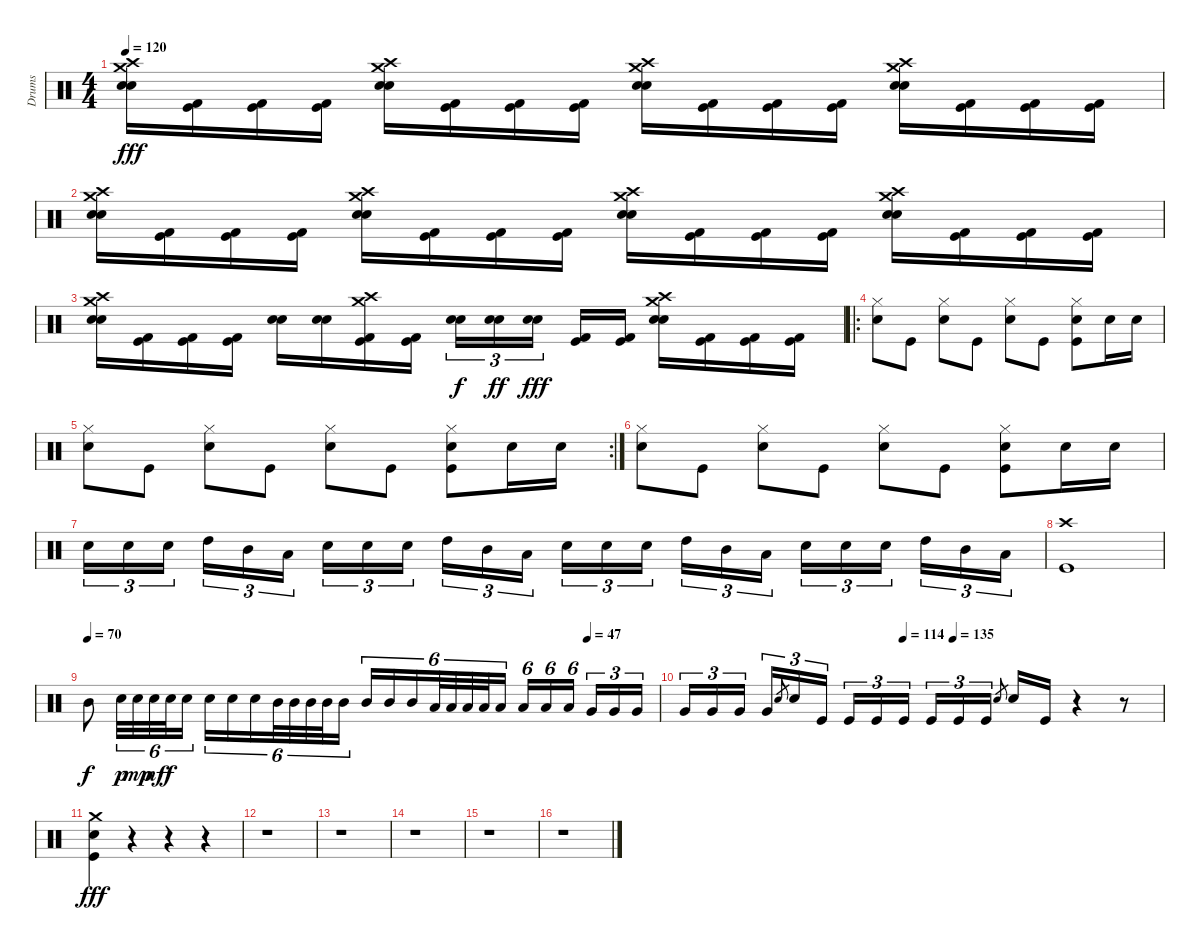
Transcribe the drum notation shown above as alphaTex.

\track ("Drums" "Drums") {instrument percussion}
\staff {score}
\articulation defaults
\ts (4 4)
\tempo 120
\clef neutral
\ks c
("Crash high (hit)" "Crash medium (hit)" "Electric Snare (hit)" "Snare (hit) 2").16{dy fff} ("Kick (hit) 2" "Kick (hit)").16 ("Kick (hit) 2" "Kick (hit)").16 ("Kick (hit) 2" "Kick (hit)").16 ("Crash high (hit)" "Crash medium (hit)" "Electric Snare (hit)" "Snare (hit) 2").16 ("Kick (hit) 2" "Kick (hit)").16 ("Kick (hit) 2" "Kick (hit)").16 ("Kick (hit) 2" "Kick (hit)").16 ("Crash high (hit)" "Crash medium (hit)" "Electric Snare (hit)" "Snare (hit) 2").16 ("Kick (hit) 2" "Kick (hit)").16 ("Kick (hit) 2" "Kick (hit)").16 ("Kick (hit) 2" "Kick (hit)").16 ("Crash high (hit)" "Crash medium (hit)" "Electric Snare (hit)" "Snare (hit) 2").16 ("Kick (hit) 2" "Kick (hit)").16 ("Kick (hit) 2" "Kick (hit)").16 ("Kick (hit) 2" "Kick (hit)").16 |
("Crash high (hit)" "Crash medium (hit)" "Electric Snare (hit)" "Snare (hit) 2").16 ("Kick (hit) 2" "Kick (hit)").16 ("Kick (hit) 2" "Kick (hit)").16 ("Kick (hit) 2" "Kick (hit)").16 ("Crash high (hit)" "Crash medium (hit)" "Electric Snare (hit)" "Snare (hit) 2").16 ("Kick (hit) 2" "Kick (hit)").16 ("Kick (hit) 2" "Kick (hit)").16 ("Kick (hit) 2" "Kick (hit)").16 ("Crash high (hit)" "Crash medium (hit)" "Electric Snare (hit)" "Snare (hit) 2").16 ("Kick (hit) 2" "Kick (hit)").16 ("Kick (hit) 2" "Kick (hit)").16 ("Kick (hit) 2" "Kick (hit)").16 ("Crash high (hit)" "Crash medium (hit)" "Electric Snare (hit)" "Snare (hit) 2").16 ("Kick (hit) 2" "Kick (hit)").16 ("Kick (hit) 2" "Kick (hit)").16 ("Kick (hit) 2" "Kick (hit)").16 |
("Crash high (hit)" "Crash medium (hit)" "Electric Snare (hit)" "Snare (hit) 2").16 ("Kick (hit) 2" "Kick (hit)").16 ("Kick (hit) 2" "Kick (hit)").16 ("Kick (hit) 2" "Kick (hit)").16 ("Electric Snare (hit)" "Snare (hit) 2").16 ("Electric Snare (hit)" "Snare (hit) 2").16 ("Crash high (hit)" "Crash medium (hit)" "Kick (hit) 2" "Kick (hit)").16 ("Kick (hit) 2" "Kick (hit)").16 ("Electric Snare (hit)" "Snare (hit) 2").16{tu (3 2) dy f} ("Electric Snare (hit)" "Snare (hit) 2").16{tu (3 2) dy ff} ("Electric Snare (hit)" "Snare (hit) 2").16{tu (3 2) dy fff} ("Kick (hit) 2" "Kick (hit)").16 ("Kick (hit) 2" "Kick (hit)").16 ("Crash high (hit)" "Crash medium (hit)" "Electric Snare (hit)" "Snare (hit) 2").16 ("Kick (hit) 2" "Kick (hit)").16 ("Kick (hit) 2" "Kick (hit)").16 ("Kick (hit) 2" "Kick (hit)").16 |
\ro
("Hi-Hat (closed)" "Electric Snare (hit)").8 "Kick (hit)".8 ("Hi-Hat (closed)" "Electric Snare (hit)").8 "Kick (hit)".8 ("Hi-Hat (closed)" "Electric Snare (hit)").8 "Kick (hit)".8 ("Hi-Hat (closed)" "Electric Snare (hit)" "Kick (hit)").8 "Electric Snare (hit)".16 "Electric Snare (hit)".16 |
\rc 2
("Hi-Hat (closed)" "Electric Snare (hit)").8 "Kick (hit)".8 ("Hi-Hat (closed)" "Electric Snare (hit)").8 "Kick (hit)".8 ("Hi-Hat (closed)" "Electric Snare (hit)").8 "Kick (hit)".8 ("Hi-Hat (closed)" "Electric Snare (hit)" "Kick (hit)").8 "Electric Snare (hit)".16 "Electric Snare (hit)".16 |
("Hi-Hat (closed)" "Electric Snare (hit)").8 "Kick (hit)".8 ("Hi-Hat (closed)" "Electric Snare (hit)").8 "Kick (hit)".8 ("Hi-Hat (closed)" "Electric Snare (hit)").8 "Kick (hit)".8 ("Hi-Hat (closed)" "Electric Snare (hit)" "Kick (hit)").8 "Electric Snare (hit)".16 "Electric Snare (hit)".16 |
"Electric Snare (hit)".16{tu (3 2)} "Electric Snare (hit)".16{tu (3 2)} "Electric Snare (hit)".16{tu (3 2)} "High Tom (hit)".16{tu (3 2)} "Mid Tom (hit)".16{tu (3 2)} "Low Tom (hit)".16{tu (3 2)} "Electric Snare (hit)".16{tu (3 2)} "Electric Snare (hit)".16{tu (3 2)} "Electric Snare (hit)".16{tu (3 2)} "High Tom (hit)".16{tu (3 2)} "Mid Tom (hit)".16{tu (3 2)} "Low Tom (hit)".16{tu (3 2)} "Electric Snare (hit)".16{tu (3 2)} "Electric Snare (hit)".16{tu (3 2)} "Electric Snare (hit)".16{tu (3 2)} "High Tom (hit)".16{tu (3 2)} "Mid Tom (hit)".16{tu (3 2)} "Low Tom (hit)".16{tu (3 2)} "Electric Snare (hit)".16{tu (3 2)} "Electric Snare (hit)".16{tu (3 2)} "Electric Snare (hit)".16{tu (3 2)} "High Tom (hit)".16{tu (3 2)} "Mid Tom (hit)".16{tu (3 2)} "Low Tom (hit)".16{tu (3 2)} |
("Crash high (hit)" "Kick (hit)").1 |
\tempo 70
\tempo (47 0.875)
"Mid Tom (hit)".8{dy f} "Electric Snare (hit)".32{tu (6 4) dy p} "Electric Snare (hit)".32{tu (6 4) dy mp} "Electric Snare (hit)".32{tu (6 4) dy mf} "Electric Snare (hit)".32{tu (6 4) dy f} "Electric Snare (hit)".16{tu (6 4)} "Electric Snare (hit)".16{tu (6 4)} "Electric Snare (hit)".16{tu (6 4)} "Electric Snare (hit)".16{tu (6 4)} "Mid Tom (hit)".32{tu (6 4)} "Mid Tom (hit)".32{tu (6 4)} "Mid Tom (hit)".32{tu (6 4)} "Mid Tom (hit)".32{tu (6 4)} "Mid Tom (hit)".16{tu (6 4)} "Mid Tom (hit)".16{tu (6 4)} "Mid Tom (hit)".16{tu (6 4)} "Mid Tom (hit)".16{tu (6 4)} "Low Tom (hit)".32{tu (6 4)} "Low Tom (hit)".32{tu (6 4)} "Low Tom (hit)".32{tu (6 4)} "Low Tom (hit)".32{tu (6 4)} "Low Tom (hit)".16{tu (6 4)} "Low Tom (hit)".16{tu (6 4)} "Low Tom (hit)".16{tu (6 4)} "Low Tom (hit)".16{tu (6 4)} "Very Low Tom (hit)".16{tu (3 2)} "Very Low Tom (hit)".16{tu (3 2)} "Very Low Tom (hit)".16{tu (3 2)} |
\tempo (114 0.4583333333333333)
\tempo (135 0.5625)
"Very Low Tom (hit)".16{tu (3 2)} "Very Low Tom (hit)".16{tu (3 2)} "Very Low Tom (hit)".16{tu (3 2)} "Very Low Tom (hit)".16{tu (3 2)} "Electric Snare (hit)".8{gr} "Electric Snare (hit)".16{tu (3 2)} "Kick (hit)".16{tu (3 2)} "Kick (hit)".16{tu (3 2)} "Kick (hit)".16{tu (3 2)} "Kick (hit)".16{tu (3 2)} "Kick (hit)".16{tu (3 2)} "Kick (hit)".16{tu (3 2)} "Kick (hit)".16{tu (3 2)} "Electric Snare (hit)".8{gr} "Electric Snare (hit)".16 "Kick (hit)".16{volume 16} r.4 r.8 |
("Crash medium (hit)" "Electric Snare (hit)" "Kick (hit)").4{dy fff} r.4 r.4 r.4 |
r.1 |
r.1 |
r.1 |
r.1 |
r.1
